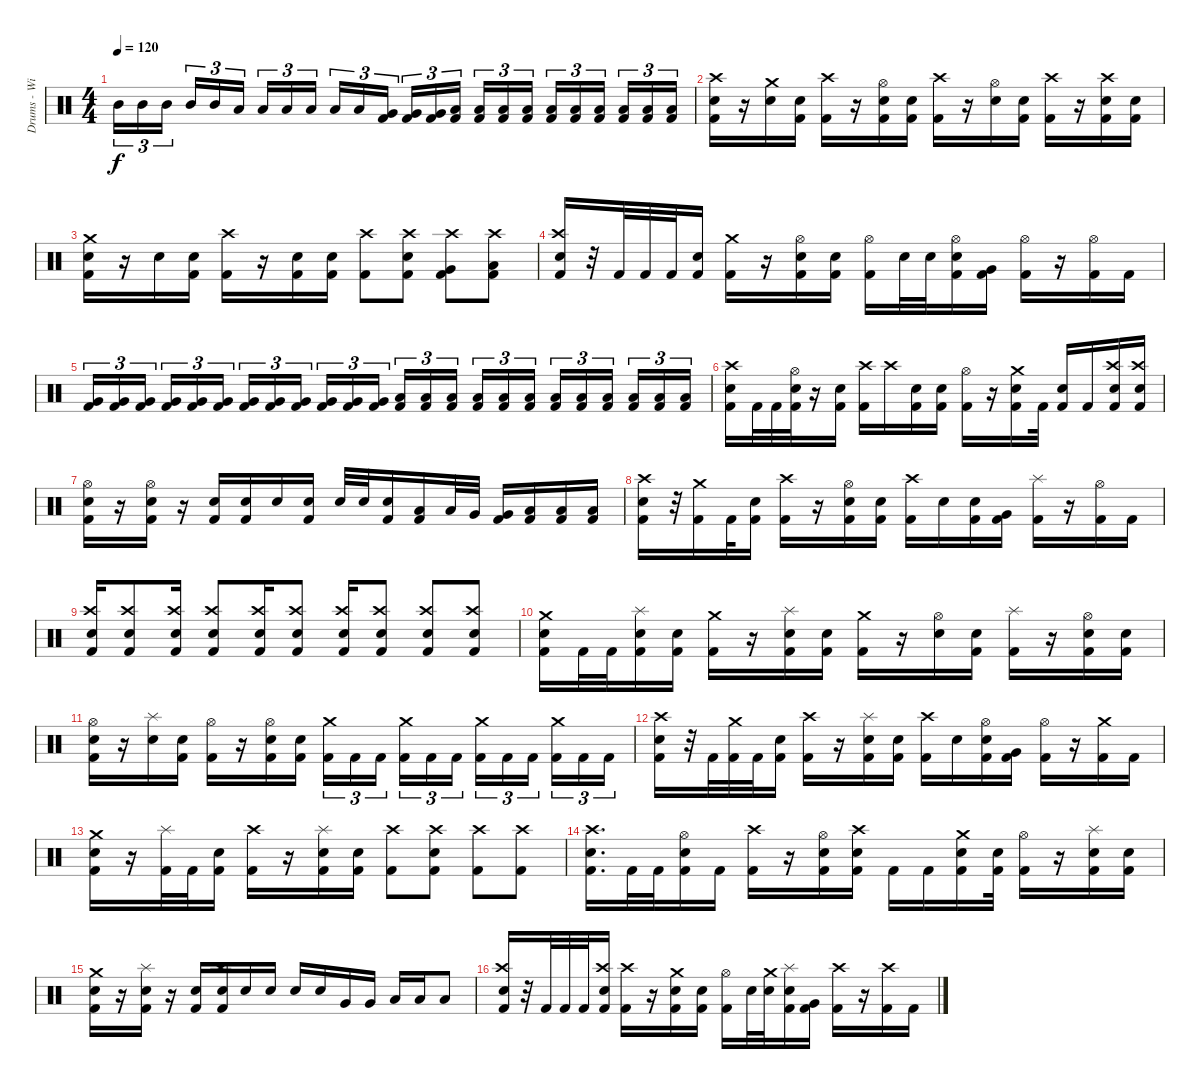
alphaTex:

\track ("Drums - Willi Wurm" "Drums - Wi") {instrument percussion}
\staff {score}
\articulation defaults
\ts (4 4)
\tempo 120
\clef neutral
\ks c "Mid Tom (hit)".16{tu (3 2) dy f} "Mid Tom (hit)".16{tu (3 2)} "Mid Tom (hit)".16{tu (3 2) beam splitsecondary} "Mid Tom (hit)".16{tu (3 2)} "Mid Tom (hit)".16{tu (3 2)} "Low Tom (hit)".16{tu (3 2)} "Low Tom (hit)".16{tu (3 2)} "Low Tom (hit)".16{tu (3 2)} "Low Tom (hit)".16{tu (3 2) beam splitsecondary} "Low Tom (hit)".16{tu (3 2)} "Low Tom (hit)".16{tu (3 2)}
("Very Low Tom (hit)" "Kick (hit) 2").16{tu (3 2)} ("Very Low Tom (hit)" "Kick (hit) 2").16{tu (3 2)} ("Very Low Tom (hit)" "Kick (hit) 2").16{tu (3 2)} ("Low Floor Tom (hit)" "Kick (hit) 2").16{tu (3 2) beam splitsecondary} ("Low Floor Tom (hit)" "Kick (hit) 2").16{tu (3 2)} ("Low Floor Tom (hit)" "Kick (hit) 2").16{tu (3 2)} ("Low Floor Tom (hit)" "Kick (hit) 2").16{tu (3 2)} ("Low Floor Tom (hit)" "Kick (hit) 2").16{tu (3 2)} ("Low Floor Tom (hit)" "Kick (hit) 2").16{tu (3 2)} ("Low Floor Tom (hit)" "Kick (hit) 2").16{tu (3 2) beam splitsecondary} ("Low Floor Tom (hit)" "Kick (hit) 2").16{tu (3 2)} ("Low Floor Tom (hit)" "Kick (hit) 2").16{tu (3 2)} ("Low Floor Tom (hit)" "Kick (hit) 2").16{tu (3 2)} |
("Crash high (hit)" "Snare (hit) 2" "Kick (hit) 2").16 r.16 ("Crash medium (hit)" "Snare (hit) 2").16 ("Snare (hit) 2" "Kick (hit) 2").16 ("Crash high (hit)" "Kick (hit) 2").16 r.16 ("Hi-Hat (open)" "Snare (hit) 2" "Kick (hit) 2").16 ("Snare (hit) 2" "Kick (hit) 2").16 ("Crash high (hit)" "Kick (hit) 2").16 r.16 ("Hi-Hat (open)" "Snare (hit) 2").16 ("Snare (hit) 2" "Kick (hit) 2").16 ("Crash high (hit)" "Kick (hit) 2").16 r.16 ("Crash high (hit)" "Snare (hit) 2" "Kick (hit) 2").16 ("Snare (hit) 2" "Kick (hit) 2").16 |
("Crash medium (hit)" "Snare (hit) 2" "Kick (hit) 2").16 r.16 "Snare (hit) 2".16 ("Snare (hit) 2" "Kick (hit) 2").16 ("Crash high (hit)" "Kick (hit) 2").16 r.16 ("Snare (hit) 2" "Kick (hit) 2").16 ("Snare (hit) 2" "Kick (hit) 2").16 ("Crash high (hit)" "Kick (hit) 2").8 ("Crash high (hit)" "Snare (hit) 2" "Kick (hit) 2").8 ("Crash high (hit)" "Very Low Tom (hit)" "Kick (hit) 2").8 ("Crash high (hit)" "Low Floor Tom (hit)" "Kick (hit) 2").8 |
("Crash high (hit)" "Snare (hit) 2" "Kick (hit) 2").16 r.32 "Kick (hit) 2".32 "Kick (hit) 2".32 "Kick (hit) 2".32 ("Snare (hit) 2" "Kick (hit) 2").16 ("Crash medium (hit)" "Kick (hit) 2").16 r.16 ("Hi-Hat (open)" "Snare (hit) 2" "Kick (hit) 2").16 ("Snare (hit) 2" "Kick (hit) 2").16 ("Hi-Hat (open)" "Kick (hit) 2").16 "Snare (hit) 2".32 "Snare (hit) 2".32 ("Hi-Hat (open)" "Snare (hit) 2" "Kick (hit) 2").16 ("Very Low Tom (hit)" "Kick (hit) 2").16 ("Hi-Hat (open)" "Kick (hit) 2").16 r.16 ("Hi-Hat (open)" "Kick (hit) 2").16 "Kick (hit) 2".16 |
("Very Low Tom (hit)" "Kick (hit) 2").16{tu (3 2)} ("Very Low Tom (hit)" "Kick (hit) 2").16{tu (3 2)} ("Very Low Tom (hit)" "Kick (hit) 2").16{tu (3 2) beam splitsecondary} ("Very Low Tom (hit)" "Kick (hit) 2").16{tu (3 2)} ("Very Low Tom (hit)" "Kick (hit) 2").16{tu (3 2)} ("Very Low Tom (hit)" "Kick (hit) 2").16{tu (3 2)} ("Very Low Tom (hit)" "Kick (hit) 2").16{tu (3 2)} ("Very Low Tom (hit)" "Kick (hit) 2").16{tu (3 2)} ("Very Low Tom (hit)" "Kick (hit) 2").16{tu (3 2) beam splitsecondary} ("Very Low Tom (hit)" "Kick (hit) 2").16{tu (3 2)} ("Very Low Tom (hit)" "Kick (hit) 2").16{tu (3 2)} ("Very Low Tom (hit)" "Kick (hit) 2").16{tu (3 2)} ("Low Floor Tom (hit)" "Kick (hit) 2").16{tu (3 2)} ("Low Floor Tom (hit)" "Kick (hit) 2").16{tu (3 2)} ("Low Floor Tom (hit)" "Kick (hit) 2").16{tu (3 2) beam splitsecondary} ("Low Floor Tom (hit)" "Kick (hit) 2").16{tu (3 2)} ("Low Floor Tom (hit)" "Kick (hit) 2").16{tu (3 2)} ("Low Floor Tom (hit)" "Kick (hit) 2").16{tu (3 2)} ("Low Floor Tom (hit)" "Kick (hit) 2").16{tu (3 2)} ("Low Floor Tom (hit)" "Kick (hit) 2").16{tu (3 2)} ("Low Floor Tom (hit)" "Kick (hit) 2").16{tu (3 2) beam splitsecondary} ("Low Floor Tom (hit)" "Kick (hit) 2").16{tu (3 2)} ("Low Floor Tom (hit)" "Kick (hit) 2").16{tu (3 2)} ("Low Floor Tom (hit)" "Kick (hit) 2").16{tu (3 2)} |
("Crash high (hit)" "Snare (hit) 2" "Kick (hit) 2").16 "Kick (hit) 2".32 "Kick (hit) 2".32 ("Hi-Hat (open)" "Snare (hit) 2" "Kick (hit) 2").32 r.16 ("Snare (hit) 2" "Kick (hit) 2").16 ("Crash high (hit)" "Kick (hit) 2").16 "Crash high (hit)".16 ("Snare (hit) 2" "Kick (hit) 2").16 ("Snare (hit) 2" "Kick (hit) 2").16 ("Hi-Hat (open)" "Kick (hit) 2").16 r.16 ("Crash medium (hit)" "Snare (hit) 2" "Kick (hit) 2").16 "Kick (hit) 2".32 ("Snare (hit) 2" "Kick (hit) 2").16 "Kick (hit) 2".16 ("Crash high (hit)" "Snare (hit) 2" "Kick (hit) 2").16 ("Crash high (hit)" "Snare (hit) 2" "Kick (hit) 2").16 |
("Hi-Hat (open)" "Snare (hit) 2" "Kick (hit) 2").16 r.16 ("Hi-Hat (open)" "Snare (hit) 2" "Kick (hit) 2").16 r.16 ("Snare (hit) 2" "Kick (hit) 2").16 ("Snare (hit) 2" "Kick (hit) 2").16 "Snare (hit) 2".16 ("Snare (hit) 2" "Kick (hit) 2").16 "Snare (hit) 2".32 "Snare (hit) 2".32 ("Snare (hit) 2" "Kick (hit) 2").16 ("Low Tom (hit)" "Kick (hit) 2").16 "Low Tom (hit)".32 "Very Low Tom (hit)".32 ("Very Low Tom (hit)" "Kick (hit) 2").16 ("Low Floor Tom (hit)" "Kick (hit) 2").16 ("Low Floor Tom (hit)" "Kick (hit) 2").16 ("Low Floor Tom (hit)" "Kick (hit) 2").16 |
("Crash high (hit)" "Snare (hit) 2" "Kick (hit) 2").16 r.32 ("Crash medium (hit)" "Kick (hit) 2").16 "Kick (hit) 2".32 ("Snare (hit) 2" "Kick (hit) 2").16 ("Crash high (hit)" "Kick (hit) 2").16 r.16 ("Hi-Hat (open)" "Snare (hit) 2" "Kick (hit) 2").16 ("Snare (hit) 2" "Kick (hit) 2").16 ("Crash high (hit)" "Kick (hit) 2").16 "Snare (hit) 2".16 ("Snare (hit) 2" "Kick (hit) 2").16 ("Very Low Tom (hit)" "Kick (hit) 2").16 ("Splash (hit)" "Kick (hit) 2").16 r.16 ("Hi-Hat (open)" "Kick (hit) 2").16 "Kick (hit) 2".16 |
("Crash high (hit)" "Snare (hit) 2" "Kick (hit) 2").16 ("Crash high (hit)" "Snare (hit) 2" "Kick (hit) 2").8 ("Crash high (hit)" "Snare (hit) 2" "Kick (hit) 2").16 ("Crash high (hit)" "Snare (hit) 2" "Kick (hit) 2").8 ("Crash high (hit)" "Snare (hit) 2" "Kick (hit) 2").16 ("Crash high (hit)" "Snare (hit) 2" "Kick (hit) 2").8 ("Crash high (hit)" "Snare (hit) 2" "Kick (hit) 2").16 ("Crash high (hit)" "Snare (hit) 2" "Kick (hit) 2").8 ("Crash high (hit)" "Snare (hit) 2" "Kick (hit) 2").8 ("Crash high (hit)" "Snare (hit) 2" "Kick (hit) 2").8 |
("Crash medium (hit)" "Snare (hit) 2" "Kick (hit) 2").16 "Kick (hit) 2".32 "Kick (hit) 2".32 ("Splash (hit)" "Snare (hit) 2" "Kick (hit) 2").16 ("Snare (hit) 2" "Kick (hit) 2").16 ("Crash medium (hit)" "Kick (hit) 2").16 r.16 ("Splash (hit)" "Snare (hit) 2" "Kick (hit) 2").16 ("Snare (hit) 2" "Kick (hit) 2").16 ("Crash medium (hit)" "Kick (hit) 2").16 r.16 ("Hi-Hat (open)" "Snare (hit) 2").16 ("Snare (hit) 2" "Kick (hit) 2").16 ("Splash (hit)" "Kick (hit) 2").16 r.16 ("Hi-Hat (open)" "Snare (hit) 2" "Kick (hit) 2").16 ("Snare (hit) 2" "Kick (hit) 2").16 |
("Hi-Hat (open)" "Snare (hit) 2" "Kick (hit) 2").16 r.16 ("Splash (hit)" "Snare (hit) 2").16 ("Snare (hit) 2" "Kick (hit) 2").16 ("Hi-Hat (open)" "Kick (hit) 2").16 r.16 ("Hi-Hat (open)" "Snare (hit) 2" "Kick (hit) 2").16 ("Snare (hit) 2" "Kick (hit) 2").16 ("Crash medium (hit)" "Kick (hit) 2").16{tu (3 2)} "Kick (hit) 2".16{tu (3 2)} "Kick (hit) 2".16{tu (3 2) beam splitsecondary} ("Crash medium (hit)" "Kick (hit) 2").16{tu (3 2)} "Kick (hit) 2".16{tu (3 2)} "Kick (hit) 2".16{tu (3 2)} ("Crash medium (hit)" "Kick (hit) 2").16{tu (3 2)} "Kick (hit) 2".16{tu (3 2)} "Kick (hit) 2".16{tu (3 2) beam splitsecondary} ("Crash medium (hit)" "Kick (hit) 2").16{tu (3 2)} "Kick (hit) 2".16{tu (3 2)} "Kick (hit) 2".16{tu (3 2)} |
("Crash high (hit)" "Snare (hit) 2" "Kick (hit) 2").16 r.32 "Kick (hit) 2".32 ("Crash medium (hit)" "Kick (hit) 2").32 "Kick (hit) 2".32 ("Snare (hit) 2" "Kick (hit) 2").16 ("Crash high (hit)" "Kick (hit) 2").16 r.16 ("Splash (hit)" "Snare (hit) 2" "Kick (hit) 2").16 ("Snare (hit) 2" "Kick (hit) 2").16 ("Crash high (hit)" "Kick (hit) 2").16 "Snare (hit) 2".16 ("Hi-Hat (open)" "Snare (hit) 2" "Kick (hit) 2").16 ("Very Low Tom (hit)" "Kick (hit) 2").16 ("Hi-Hat (open)" "Kick (hit) 2").16 r.16 ("Crash medium (hit)" "Kick (hit) 2").16 "Kick (hit) 2".16 |
("Crash medium (hit)" "Snare (hit) 2" "Kick (hit) 2").16 r.16 ("Splash (hit)" "Kick (hit) 2").32 "Kick (hit) 2".32 ("Snare (hit) 2" "Kick (hit) 2").16 ("Crash high (hit)" "Kick (hit) 2").16 r.16 ("Splash (hit)" "Snare (hit) 2" "Kick (hit) 2").16 ("Snare (hit) 2" "Kick (hit) 2").16 ("Crash high (hit)" "Kick (hit) 2").8 ("Crash high (hit)" "Snare (hit) 2" "Kick (hit) 2").8 ("Crash high (hit)" "Kick (hit) 2").8 ("Crash high (hit)" "Kick (hit) 2").8 |
("Crash high (hit)" "Snare (hit) 2" "Kick (hit) 2").16{d} "Kick (hit) 2".32 "Kick (hit) 2".32 ("Hi-Hat (open)" "Snare (hit) 2" "Kick (hit) 2").16 "Kick (hit) 2".16 ("Crash high (hit)" "Kick (hit) 2").16 r.16 ("Hi-Hat (open)" "Snare (hit) 2" "Kick (hit) 2").16 ("Crash high (hit)" "Snare (hit) 2" "Kick (hit) 2").16 "Kick (hit) 2".16 "Kick (hit) 2".16 ("Crash medium (hit)" "Snare (hit) 2" "Kick (hit) 2").16 ("Snare (hit) 2" "Kick (hit) 2").32 ("Hi-Hat (open)" "Kick (hit) 2").16 r.16 ("Splash (hit)" "Snare (hit) 2" "Kick (hit) 2").16 ("Snare (hit) 2" "Kick (hit) 2").16 |
("Crash medium (hit)" "Snare (hit) 2" "Kick (hit) 2").16 r.16 ("Splash (hit)" "Snare (hit) 2" "Kick (hit) 2").16 r.16 ("Snare (hit) 2" "Kick (hit) 2").16 ("Crash high (hit)" "Snare (hit) 2" "Kick (hit) 2").16 "Snare (hit) 2".16 "Snare (hit) 2".16 "Snare (hit) 2".16 "Snare (hit) 2".16 "Very Low Tom (hit)".16 "Very Low Tom (hit)".16 "Low Floor Tom (hit)".16 "Low Floor Tom (hit)".16 "Low Floor Tom (hit)".8 |
("Crash high (hit)" "Snare (hit) 2" "Kick (hit) 2").16 r.32 "Kick (hit) 2".32 "Kick (hit) 2".32 "Kick (hit) 2".32 ("Crash high (hit)" "Snare (hit) 2" "Kick (hit) 2").16 ("Crash high (hit)" "Kick (hit) 2").16 r.16 ("Crash medium (hit)" "Snare (hit) 2" "Kick (hit) 2").16 ("Snare (hit) 2" "Kick (hit) 2").16 ("Hi-Hat (open)" "Kick (hit) 2").16 "Snare (hit) 2".32 ("Crash medium (hit)" "Snare (hit) 2").32 ("Splash (hit)" "Snare (hit) 2" "Kick (hit) 2").16 ("Very Low Tom (hit)" "Kick (hit) 2").16 ("Crash high (hit)" "Kick (hit) 2").16 r.16 ("Crash high (hit)" "Kick (hit) 2").16 "Kick (hit) 2".16
